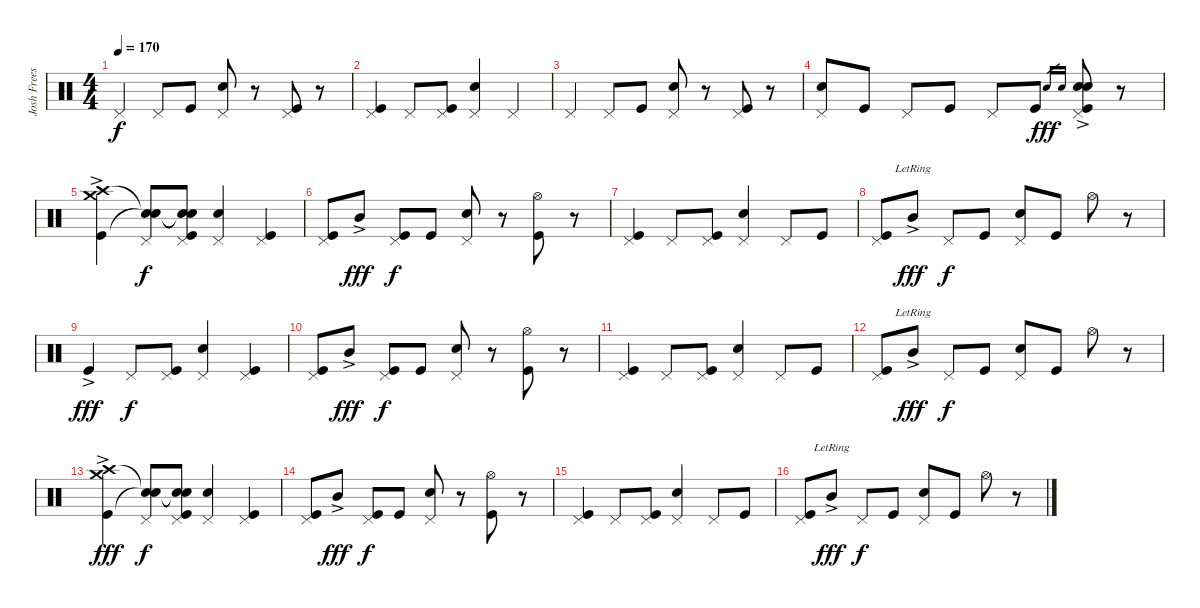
\track ("Josh Freese - Drums" "Josh Frees") {instrument percussion}
\staff {score}
\articulation defaults
\ts (4 4)
\tempo 170
\clef neutral
\ks c "Pedal Hi-Hat (hit)".4{dy f} "Pedal Hi-Hat (hit)".8 "Kick (hit)".8
("Pedal Hi-Hat (hit)" "Electric Snare (hit)").8 r.8 ("Pedal Hi-Hat (hit)" "Kick (hit)").8 r.8 |
("Pedal Hi-Hat (hit)" "Kick (hit)").4 "Pedal Hi-Hat (hit)".8 ("Pedal Hi-Hat (hit)" "Kick (hit)").8 ("Pedal Hi-Hat (hit)" "Electric Snare (hit)").4 "Pedal Hi-Hat (hit)".4 |
"Pedal Hi-Hat (hit)".4 "Pedal Hi-Hat (hit)".8 "Kick (hit)".8 ("Pedal Hi-Hat (hit)" "Electric Snare (hit)").8 r.8 ("Pedal Hi-Hat (hit)" "Kick (hit)").8 r.8 |
("Pedal Hi-Hat (hit)" "Electric Snare (hit)").8 "Kick (hit)".8 "Pedal Hi-Hat (hit)".8 "Kick (hit)".8 "Pedal Hi-Hat (hit)".8 "Kick (hit)".8 "Electric Snare (hit)".16{gr dy fff} "Electric Snare (hit)".16{gr} ("Pedal Hi-Hat (hit)" "Electric Snare (hit)"{ac} "Electric Snare (hit)"{ac} "Kick (hit)"{ac}).8 r.8 |
("Crash high (hit)"{ac} "Crash medium (hit)"{ac} "Kick (hit)"{ac}).4 ("Snare (hit)"{t} "Pedal Hi-Hat (hit)" "Snare (hit)"{t}).8{dy f} ("Snare (hit)"{t} "Pedal Hi-Hat (hit)" "Snare (hit)"{t} "Kick (hit)").8 ("Pedal Hi-Hat (hit)" "Electric Snare (hit)").4 ("Pedal Hi-Hat (hit)" "Kick (hit)").4 |
("Pedal Hi-Hat (hit)" "Kick (hit)").8 "Mid Tom (hit)"{ac}.8{dy fff} ("Pedal Hi-Hat (hit)" "Kick (hit)").8{dy f} "Kick (hit)".8 ("Pedal Hi-Hat (hit)" "Electric Snare (hit)").8 r.8 ("Hi-Hat (open)" "Kick (hit)").8 r.8 |
("Pedal Hi-Hat (hit)" "Kick (hit)").4 "Pedal Hi-Hat (hit)".8 ("Pedal Hi-Hat (hit)" "Kick (hit)").8 ("Pedal Hi-Hat (hit)" "Electric Snare (hit)").4 "Pedal Hi-Hat (hit)".8 "Kick (hit)".8 |
("Pedal Hi-Hat (hit)" "Kick (hit)").8 "Mid Tom (hit)"{ac lr}.8{dy fff} "Pedal Hi-Hat (hit)".8{dy f} "Kick (hit)".8 ("Pedal Hi-Hat (hit)" "Electric Snare (hit)").8 "Kick (hit)".8 "Hi-Hat (open)".8 r.8 |
"Kick (hit)"{ac}.4{dy fff} "Pedal Hi-Hat (hit)".8{dy f} ("Pedal Hi-Hat (hit)" "Kick (hit)").8 ("Pedal Hi-Hat (hit)" "Electric Snare (hit)").4 ("Pedal Hi-Hat (hit)" "Kick (hit)").4 |
("Pedal Hi-Hat (hit)" "Kick (hit)").8 "Mid Tom (hit)"{ac}.8{dy fff} ("Pedal Hi-Hat (hit)" "Kick (hit)").8{dy f} "Kick (hit)".8 ("Pedal Hi-Hat (hit)" "Electric Snare (hit)").8 r.8 ("Hi-Hat (open)" "Kick (hit)").8 r.8 |
("Pedal Hi-Hat (hit)" "Kick (hit)").4 "Pedal Hi-Hat (hit)".8 ("Pedal Hi-Hat (hit)" "Kick (hit)").8 ("Pedal Hi-Hat (hit)" "Electric Snare (hit)").4 "Pedal Hi-Hat (hit)".8 "Kick (hit)".8 |
("Pedal Hi-Hat (hit)" "Kick (hit)").8 "Mid Tom (hit)"{ac lr}.8{dy fff} "Pedal Hi-Hat (hit)".8{dy f} "Kick (hit)".8 ("Pedal Hi-Hat (hit)" "Electric Snare (hit)").8 "Kick (hit)".8 "Hi-Hat (open)".8 r.8 |
("Crash high (hit)"{ac} "Crash medium (hit)"{ac} "Kick (hit)"{ac}).4{dy fff} ("Snare (hit)"{t} "Pedal Hi-Hat (hit)" "Snare (hit)"{t}).8{dy f} ("Snare (hit)"{t} "Pedal Hi-Hat (hit)" "Snare (hit)"{t} "Kick (hit)").8 ("Pedal Hi-Hat (hit)" "Electric Snare (hit)").4 ("Pedal Hi-Hat (hit)" "Kick (hit)").4 |
("Pedal Hi-Hat (hit)" "Kick (hit)").8 "Mid Tom (hit)"{ac}.8{dy fff} ("Pedal Hi-Hat (hit)" "Kick (hit)").8{dy f} "Kick (hit)".8 ("Pedal Hi-Hat (hit)" "Electric Snare (hit)").8 r.8 ("Hi-Hat (open)" "Kick (hit)").8 r.8 |
("Pedal Hi-Hat (hit)" "Kick (hit)").4 "Pedal Hi-Hat (hit)".8 ("Pedal Hi-Hat (hit)" "Kick (hit)").8 ("Pedal Hi-Hat (hit)" "Electric Snare (hit)").4 "Pedal Hi-Hat (hit)".8 "Kick (hit)".8 |
("Pedal Hi-Hat (hit)" "Kick (hit)").8 "Mid Tom (hit)"{ac lr}.8{dy fff} "Pedal Hi-Hat (hit)".8{dy f} "Kick (hit)".8 ("Pedal Hi-Hat (hit)" "Electric Snare (hit)").8 "Kick (hit)".8 "Hi-Hat (open)".8 r.8
